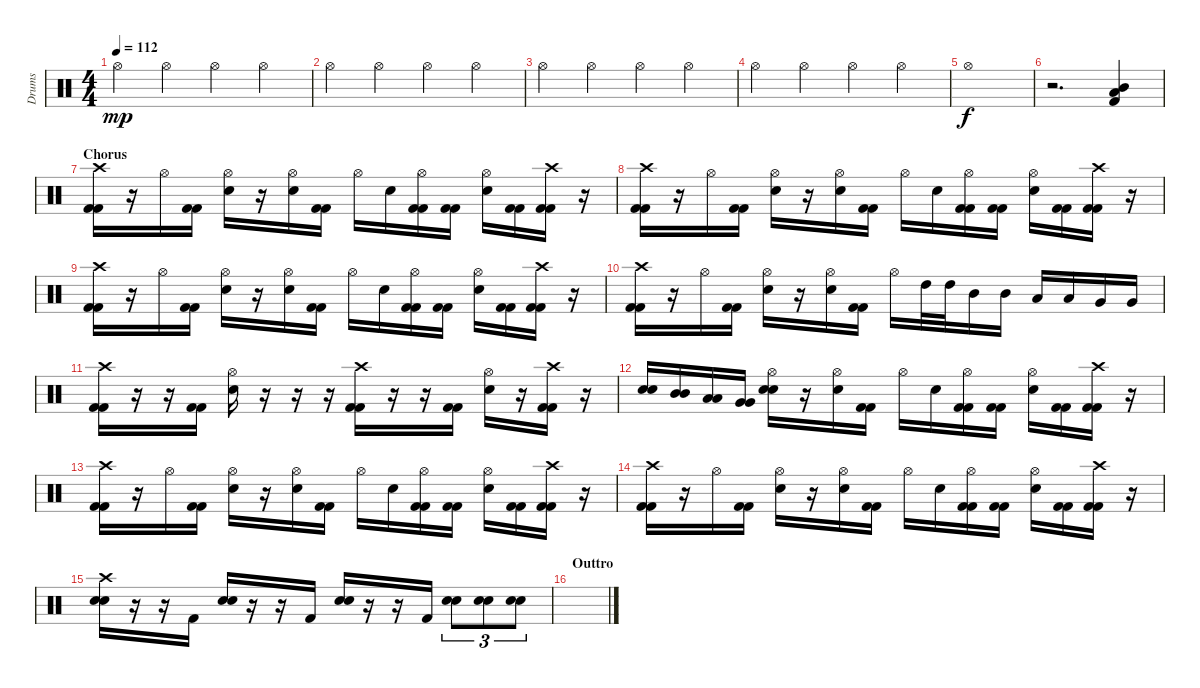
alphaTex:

\track ("Drums" "Drums") {instrument percussion}
\staff {score}
\articulation defaults
\ts (4 4)
\tempo 112
\clef neutral
\ks c "Hi-Hat (open)".4{dy mp} "Hi-Hat (open)".4 "Hi-Hat (open)".4 "Hi-Hat (open)".4
|
"Hi-Hat (open)".4 "Hi-Hat (open)".4 "Hi-Hat (open)".4 "Hi-Hat (open)".4 |
"Hi-Hat (open)".4 "Hi-Hat (open)".4 "Hi-Hat (open)".4 "Hi-Hat (open)".4 |
"Hi-Hat (open)".4 "Hi-Hat (open)".4 "Hi-Hat (open)".4 "Hi-Hat (open)".4 |
"Hi-Hat (open)".1{dy f} |
r.2{d} ("Mid Tom (hit)" "Low Tom (hit)" "Kick (hit) 2").4 |
\section ("" "Chorus")
("Crash high (hit)" "Kick (hit) 2" "Kick (hit) 2").16 r.16 "Hi-Hat (open)".16 ("Kick (hit) 2" "Kick (hit) 2").16 ("Hi-Hat (open)" "Snare (hit) 2").16 r.16 ("Hi-Hat (open)" "Snare (hit) 2").16 ("Kick (hit) 2" "Kick (hit) 2").16 "Hi-Hat (open)".16 "Snare (hit) 2".16 ("Hi-Hat (open)" "Kick (hit) 2" "Kick (hit) 2").16 ("Kick (hit) 2" "Kick (hit) 2").16 ("Hi-Hat (open)" "Snare (hit) 2").16 ("Kick (hit) 2" "Kick (hit) 2").16 ("Crash high (hit)" "Kick (hit) 2" "Kick (hit) 2").16 r.16 |
("Crash high (hit)" "Kick (hit) 2" "Kick (hit) 2").16 r.16 "Hi-Hat (open)".16 ("Kick (hit) 2" "Kick (hit) 2").16 ("Hi-Hat (open)" "Snare (hit) 2").16 r.16 ("Hi-Hat (open)" "Snare (hit) 2").16 ("Kick (hit) 2" "Kick (hit) 2").16 "Hi-Hat (open)".16 "Snare (hit) 2".16 ("Hi-Hat (open)" "Kick (hit) 2" "Kick (hit) 2").16 ("Kick (hit) 2" "Kick (hit) 2").16 ("Hi-Hat (open)" "Snare (hit) 2").16 ("Kick (hit) 2" "Kick (hit) 2").16 ("Crash high (hit)" "Kick (hit) 2" "Kick (hit) 2").16 r.16 |
("Crash high (hit)" "Kick (hit) 2" "Kick (hit) 2").16 r.16 "Hi-Hat (open)".16 ("Kick (hit) 2" "Kick (hit) 2").16 ("Hi-Hat (open)" "Snare (hit) 2").16 r.16 ("Hi-Hat (open)" "Snare (hit) 2").16 ("Kick (hit) 2" "Kick (hit) 2").16 "Hi-Hat (open)".16 "Snare (hit) 2".16 ("Hi-Hat (open)" "Kick (hit) 2" "Kick (hit) 2").16 ("Kick (hit) 2" "Kick (hit) 2").16 ("Hi-Hat (open)" "Snare (hit) 2").16 ("Kick (hit) 2" "Kick (hit) 2").16 ("Crash high (hit)" "Kick (hit) 2" "Kick (hit) 2").16 r.16 |
("Crash high (hit)" "Kick (hit) 2" "Kick (hit) 2").16 r.16 "Hi-Hat (open)".16 ("Kick (hit) 2" "Kick (hit) 2").16 ("Hi-Hat (open)" "Snare (hit) 2").16 r.16 ("Hi-Hat (open)" "Snare (hit) 2").16 ("Kick (hit) 2" "Kick (hit) 2").16 "Hi-Hat (open)".16 "High Tom (hit)".32 "High Tom (hit)".32 "Mid Tom (hit)".16 "Mid Tom (hit)".16 "Low Tom (hit)".16 "Low Tom (hit)".16 "Very Low Tom (hit)".16 "Very Low Tom (hit)".16 |
("Crash high (hit)" "Kick (hit) 2" "Kick (hit) 2").16 r.16 r.16 ("Kick (hit) 2" "Kick (hit) 2").16 ("Hi-Hat (open)" "Snare (hit) 2").16 r.16 r.16 r.16 ("Crash high (hit)" "Kick (hit) 2" "Kick (hit) 2").16 r.16 r.16 ("Kick (hit) 2" "Kick (hit) 2").16 ("Hi-Hat (open)" "Snare (hit) 2").16 r.16 ("Crash high (hit)" "Kick (hit) 2" "Kick (hit) 2").16 r.16 |
("Snare (hit) 2" "Snare (hit) 2").16 ("Mid Tom (hit)" "Mid Tom (hit)").16 ("Low Tom (hit)" "Low Tom (hit)").16 ("Very Low Tom (hit)" "Very Low Tom (hit)").16 ("Hi-Hat (open)" "Snare (hit) 2" "Snare (hit) 2").16 r.16 ("Hi-Hat (open)" "Snare (hit) 2").16 ("Kick (hit) 2" "Kick (hit) 2").16 "Hi-Hat (open)".16 "Snare (hit) 2".16 ("Hi-Hat (open)" "Kick (hit) 2" "Kick (hit) 2").16 ("Kick (hit) 2" "Kick (hit) 2").16 ("Hi-Hat (open)" "Snare (hit) 2").16 ("Kick (hit) 2" "Kick (hit) 2").16 ("Crash high (hit)" "Kick (hit) 2" "Kick (hit) 2").16 r.16 |
("Crash high (hit)" "Kick (hit) 2" "Kick (hit) 2").16 r.16 "Hi-Hat (open)".16 ("Kick (hit) 2" "Kick (hit) 2").16 ("Hi-Hat (open)" "Snare (hit) 2").16 r.16 ("Hi-Hat (open)" "Snare (hit) 2").16 ("Kick (hit) 2" "Kick (hit) 2").16 "Hi-Hat (open)".16 "Snare (hit) 2".16 ("Hi-Hat (open)" "Kick (hit) 2" "Kick (hit) 2").16 ("Kick (hit) 2" "Kick (hit) 2").16 ("Hi-Hat (open)" "Snare (hit) 2").16 ("Kick (hit) 2" "Kick (hit) 2").16 ("Crash high (hit)" "Kick (hit) 2" "Kick (hit) 2").16 r.16 |
("Crash high (hit)" "Kick (hit) 2" "Kick (hit) 2").16 r.16 "Hi-Hat (open)".16 ("Kick (hit) 2" "Kick (hit) 2").16 ("Hi-Hat (open)" "Snare (hit) 2").16 r.16 ("Hi-Hat (open)" "Snare (hit) 2").16 ("Kick (hit) 2" "Kick (hit) 2").16 "Hi-Hat (open)".16 "Snare (hit) 2".16 ("Hi-Hat (open)" "Kick (hit) 2" "Kick (hit) 2").16 ("Kick (hit) 2" "Kick (hit) 2").16 ("Hi-Hat (open)" "Snare (hit) 2").16 ("Kick (hit) 2" "Kick (hit) 2").16 ("Crash high (hit)" "Kick (hit) 2" "Kick (hit) 2").16 r.16 |
("Crash high (hit)" "Snare (hit) 2" "Snare (hit) 2").16 r.16 r.16 "Kick (hit) 2".16 ("Snare (hit) 2" "Snare (hit) 2").16 r.16 r.16 "Kick (hit) 2".16 ("Snare (hit) 2" "Snare (hit) 2").16 r.16 r.16 "Kick (hit) 2".16 ("Snare (hit) 2" "Snare (hit) 2").8{tu (3 2)} ("Snare (hit) 2" "Snare (hit) 2").8{tu (3 2)} ("Snare (hit) 2" "Snare (hit) 2").8{tu (3 2)} |
\section ("" "Outtro")
